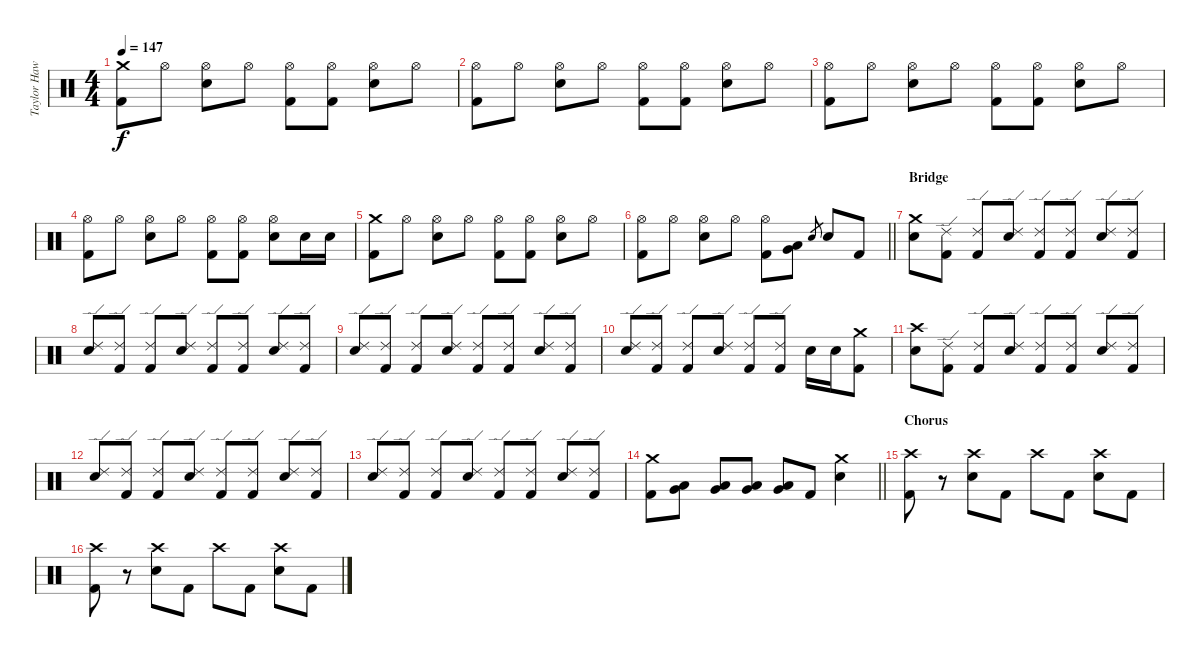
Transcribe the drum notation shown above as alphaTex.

\track ("Taylor Hawkins - Drums" "Taylor Haw") {instrument percussion}
\staff {score}
\articulation defaults
\ts (4 4)
\tempo 147
\clef neutral
\ks c
("Crash medium (hit)" "Kick (hit) 2").8{dy f} "Hi-Hat (open)".8 ("Hi-Hat (open)" "Snare (hit) 2").8 "Hi-Hat (open)".8 ("Hi-Hat (open)" "Kick (hit) 2").8 ("Hi-Hat (open)" "Kick (hit) 2").8 ("Hi-Hat (open)" "Snare (hit) 2").8 "Hi-Hat (open)".8 |
("Hi-Hat (open)" "Kick (hit) 2").8 "Hi-Hat (open)".8 ("Hi-Hat (open)" "Snare (hit) 2").8 "Hi-Hat (open)".8 ("Hi-Hat (open)" "Kick (hit) 2").8 ("Hi-Hat (open)" "Kick (hit) 2").8 ("Hi-Hat (open)" "Snare (hit) 2").8 "Hi-Hat (open)".8 |
("Hi-Hat (open)" "Kick (hit) 2").8 "Hi-Hat (open)".8 ("Hi-Hat (open)" "Snare (hit) 2").8 "Hi-Hat (open)".8 ("Hi-Hat (open)" "Kick (hit) 2").8 ("Hi-Hat (open)" "Kick (hit) 2").8 ("Hi-Hat (open)" "Snare (hit) 2").8 "Hi-Hat (open)".8 |
("Hi-Hat (open)" "Kick (hit) 2").8 "Hi-Hat (open)".8 ("Hi-Hat (open)" "Snare (hit) 2").8 "Hi-Hat (open)".8 ("Hi-Hat (open)" "Kick (hit) 2").8 ("Hi-Hat (open)" "Kick (hit) 2").8 ("Hi-Hat (open)" "Snare (hit) 2").8 "Snare (hit) 2".16 "Snare (hit) 2".16 |
("Crash medium (hit)" "Kick (hit) 2").8 "Hi-Hat (open)".8 ("Hi-Hat (open)" "Snare (hit) 2").8 "Hi-Hat (open)".8 ("Hi-Hat (open)" "Kick (hit) 2").8 ("Hi-Hat (open)" "Kick (hit) 2").8 ("Hi-Hat (open)" "Snare (hit) 2").8 "Hi-Hat (open)".8 |
\barLineRight lightlight
("Hi-Hat (open)" "Kick (hit) 2").8 "Hi-Hat (open)".8 ("Hi-Hat (open)" "Snare (hit) 2").8 "Hi-Hat (open)".8 ("Hi-Hat (open)" "Kick (hit) 2").8 ("Low Tom (hit)" "Very Low Tom (hit)").8 "Snare (hit) 2".8{gr} "Snare (hit) 2".8 "Kick (hit) 2".8 |
\section ("" "Bridge")
("Crash medium (hit)" "Snare (hit) 2").8 ("Ride (edge) 2" "Kick (hit) 2").8 ("Ride (edge) 2" "Kick (hit) 2").8 ("Ride (edge) 2" "Snare (hit) 2").8 ("Ride (edge) 2" "Kick (hit) 2").8 ("Ride (edge) 2" "Kick (hit) 2").8 ("Ride (edge) 2" "Snare (hit) 2").8 ("Ride (edge) 2" "Kick (hit) 2").8 |
("Ride (edge) 2" "Snare (hit) 2").8 ("Ride (edge) 2" "Kick (hit) 2").8 ("Ride (edge) 2" "Kick (hit) 2").8 ("Ride (edge) 2" "Snare (hit) 2").8 ("Ride (edge) 2" "Kick (hit) 2").8 ("Ride (edge) 2" "Kick (hit) 2").8 ("Ride (edge) 2" "Snare (hit) 2").8 ("Ride (edge) 2" "Kick (hit) 2").8 |
("Ride (edge) 2" "Snare (hit) 2").8 ("Ride (edge) 2" "Kick (hit) 2").8 ("Ride (edge) 2" "Kick (hit) 2").8 ("Ride (edge) 2" "Snare (hit) 2").8 ("Ride (edge) 2" "Kick (hit) 2").8 ("Ride (edge) 2" "Kick (hit) 2").8 ("Ride (edge) 2" "Snare (hit) 2").8 ("Ride (edge) 2" "Kick (hit) 2").8 |
("Ride (edge) 2" "Snare (hit) 2").8 ("Ride (edge) 2" "Kick (hit) 2").8 ("Ride (edge) 2" "Kick (hit) 2").8 ("Ride (edge) 2" "Snare (hit) 2").8 ("Ride (edge) 2" "Kick (hit) 2").8 ("Ride (edge) 2" "Kick (hit) 2").8 "Snare (hit) 2".16 "Snare (hit) 2".16 ("Crash medium (hit)" "Kick (hit) 2").8 |
("Crash high (hit)" "Snare (hit) 2").8 ("Ride (edge) 2" "Kick (hit) 2").8 ("Ride (edge) 2" "Kick (hit) 2").8 ("Ride (edge) 2" "Snare (hit) 2").8 ("Ride (edge) 2" "Kick (hit) 2").8 ("Ride (edge) 2" "Kick (hit) 2").8 ("Ride (edge) 2" "Snare (hit) 2").8 ("Ride (edge) 2" "Kick (hit) 2").8 |
("Ride (edge) 2" "Snare (hit) 2").8 ("Ride (edge) 2" "Kick (hit) 2").8 ("Ride (edge) 2" "Kick (hit) 2").8 ("Ride (edge) 2" "Snare (hit) 2").8 ("Ride (edge) 2" "Kick (hit) 2").8 ("Ride (edge) 2" "Kick (hit) 2").8 ("Ride (edge) 2" "Snare (hit) 2").8 ("Ride (edge) 2" "Kick (hit) 2").8 |
("Ride (edge) 2" "Snare (hit) 2").8 ("Ride (edge) 2" "Kick (hit) 2").8 ("Ride (edge) 2" "Kick (hit) 2").8 ("Ride (edge) 2" "Snare (hit) 2").8 ("Ride (edge) 2" "Kick (hit) 2").8 ("Ride (edge) 2" "Kick (hit) 2").8 ("Ride (edge) 2" "Snare (hit) 2").8 ("Ride (edge) 2" "Kick (hit) 2").8 |
\barLineRight lightlight
("Crash medium (hit)" "Kick (hit) 2").8 ("Low Tom (hit)" "Very Low Tom (hit)").8 ("Low Tom (hit)" "Very Low Tom (hit)").8 ("Low Tom (hit)" "Very Low Tom (hit)").8 ("Low Tom (hit)" "Very Low Tom (hit)").8 "Kick (hit) 2".8 ("Crash medium (hit)" "Snare (hit) 2").4 |
\section ("" "Chorus")
("Crash high (hit)" "Kick (hit) 2").8 r.8 ("Crash high (hit)" "Snare (hit) 2").8 "Kick (hit) 2".8 "Crash high (hit)".8 "Kick (hit) 2".8 ("Crash high (hit)" "Snare (hit) 2").8 "Kick (hit) 2".8 |
("Crash high (hit)" "Kick (hit) 2").8 r.8 ("Crash high (hit)" "Snare (hit) 2").8 "Kick (hit) 2".8 "Crash high (hit)".8 "Kick (hit) 2".8 ("Crash high (hit)" "Snare (hit) 2").8 "Kick (hit) 2".8
